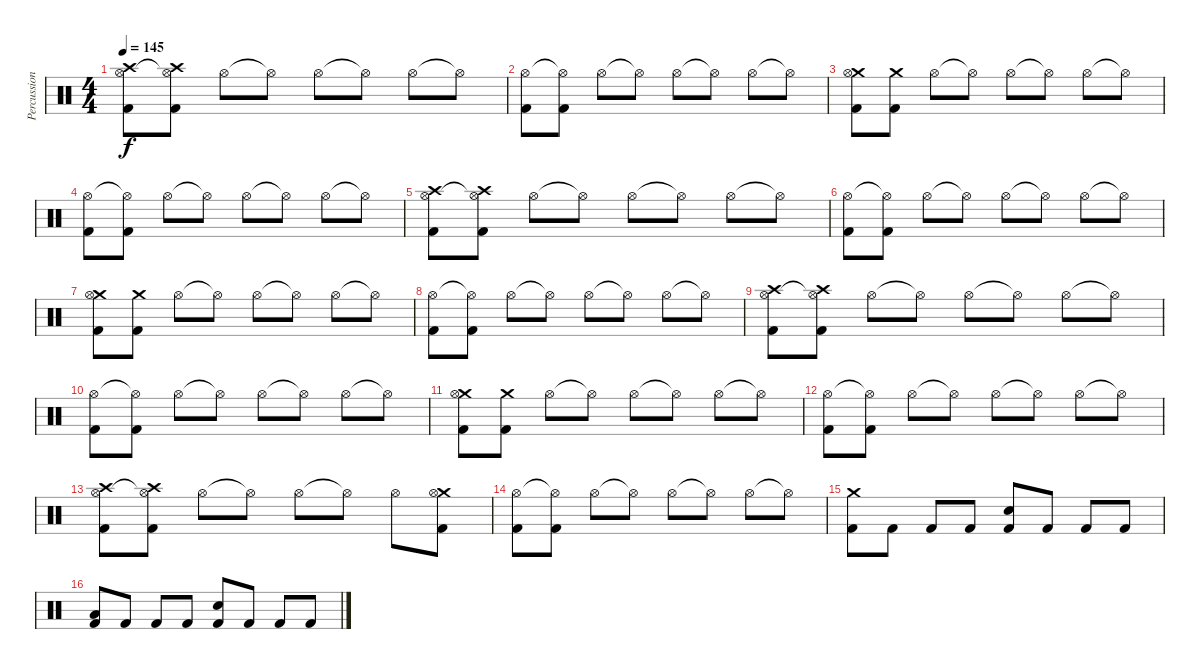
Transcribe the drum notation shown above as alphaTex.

\track ("Percussioni" "Percussion") {instrument percussion}
\staff {score}
\articulation defaults
\ts (4 4)
\tempo 145
\clef neutral
\ks c
("Crash high (hit)" "Hi-Hat (open)" "Kick (hit) 2").8{dy f} ("Crash high (hit)" "Hi-Hat (open)"{t} "Kick (hit) 2").8 "Hi-Hat (open)".8 "Hi-Hat (open)"{t}.8 "Hi-Hat (open)".8 "Hi-Hat (open)"{t}.8 "Hi-Hat (open)".8 "Hi-Hat (open)"{t}.8 |
("Hi-Hat (open)" "Kick (hit) 2").8 ("Hi-Hat (open)"{t} "Kick (hit) 2").8 "Hi-Hat (open)".8 "Hi-Hat (open)"{t}.8 "Hi-Hat (open)".8 "Hi-Hat (open)"{t}.8 "Hi-Hat (open)".8 "Hi-Hat (open)"{t}.8 |
("Crash medium (hit)" "Hi-Hat (open)" "Kick (hit) 2").8 ("Crash medium (hit)" "Kick (hit) 2").8 "Hi-Hat (open)".8 "Hi-Hat (open)"{t}.8 "Hi-Hat (open)".8 "Hi-Hat (open)"{t}.8 "Hi-Hat (open)".8 "Hi-Hat (open)"{t}.8 |
("Hi-Hat (open)" "Kick (hit) 2").8 ("Hi-Hat (open)"{t} "Kick (hit) 2").8 "Hi-Hat (open)".8 "Hi-Hat (open)"{t}.8 "Hi-Hat (open)".8 "Hi-Hat (open)"{t}.8 "Hi-Hat (open)".8 "Hi-Hat (open)"{t}.8 |
("Crash high (hit)" "Hi-Hat (open)" "Kick (hit) 2").8 ("Crash high (hit)" "Hi-Hat (open)"{t} "Kick (hit) 2").8 "Hi-Hat (open)".8 "Hi-Hat (open)"{t}.8 "Hi-Hat (open)".8 "Hi-Hat (open)"{t}.8 "Hi-Hat (open)".8 "Hi-Hat (open)"{t}.8 |
("Hi-Hat (open)" "Kick (hit) 2").8 ("Hi-Hat (open)"{t} "Kick (hit) 2").8 "Hi-Hat (open)".8 "Hi-Hat (open)"{t}.8 "Hi-Hat (open)".8 "Hi-Hat (open)"{t}.8 "Hi-Hat (open)".8 "Hi-Hat (open)"{t}.8 |
("Crash medium (hit)" "Hi-Hat (open)" "Kick (hit) 2").8 ("Crash medium (hit)" "Kick (hit) 2").8 "Hi-Hat (open)".8 "Hi-Hat (open)"{t}.8 "Hi-Hat (open)".8 "Hi-Hat (open)"{t}.8 "Hi-Hat (open)".8 "Hi-Hat (open)"{t}.8 |
("Hi-Hat (open)" "Kick (hit) 2").8 ("Hi-Hat (open)"{t} "Kick (hit) 2").8 "Hi-Hat (open)".8 "Hi-Hat (open)"{t}.8 "Hi-Hat (open)".8 "Hi-Hat (open)"{t}.8 "Hi-Hat (open)".8 "Hi-Hat (open)"{t}.8 |
("Crash high (hit)" "Hi-Hat (open)" "Kick (hit) 2").8 ("Crash high (hit)" "Hi-Hat (open)"{t} "Kick (hit) 2").8 "Hi-Hat (open)".8 "Hi-Hat (open)"{t}.8 "Hi-Hat (open)".8 "Hi-Hat (open)"{t}.8 "Hi-Hat (open)".8 "Hi-Hat (open)"{t}.8 |
("Hi-Hat (open)" "Kick (hit) 2").8 ("Hi-Hat (open)"{t} "Kick (hit) 2").8 "Hi-Hat (open)".8 "Hi-Hat (open)"{t}.8 "Hi-Hat (open)".8 "Hi-Hat (open)"{t}.8 "Hi-Hat (open)".8 "Hi-Hat (open)"{t}.8 |
("Crash medium (hit)" "Hi-Hat (open)" "Kick (hit) 2").8 ("Crash medium (hit)" "Kick (hit) 2").8 "Hi-Hat (open)".8 "Hi-Hat (open)"{t}.8 "Hi-Hat (open)".8 "Hi-Hat (open)"{t}.8 "Hi-Hat (open)".8 "Hi-Hat (open)"{t}.8 |
("Hi-Hat (open)" "Kick (hit) 2").8 ("Hi-Hat (open)"{t} "Kick (hit) 2").8 "Hi-Hat (open)".8 "Hi-Hat (open)"{t}.8 "Hi-Hat (open)".8 "Hi-Hat (open)"{t}.8 "Hi-Hat (open)".8 "Hi-Hat (open)"{t}.8 |
("Crash high (hit)" "Hi-Hat (open)" "Kick (hit) 2").8 ("Crash high (hit)" "Hi-Hat (open)"{t} "Kick (hit) 2").8 "Hi-Hat (open)".8 "Hi-Hat (open)"{t}.8 "Hi-Hat (open)".8 "Hi-Hat (open)"{t}.8 "Hi-Hat (open)".8 ("Crash medium (hit)" "Hi-Hat (open)" "Kick (hit) 2").8 |
("Hi-Hat (open)" "Kick (hit) 2").8 ("Hi-Hat (open)"{t} "Kick (hit) 2").8 "Hi-Hat (open)".8 "Hi-Hat (open)"{t}.8 "Hi-Hat (open)".8 "Hi-Hat (open)"{t}.8 "Hi-Hat (open)".8 "Hi-Hat (open)"{t}.8 |
("Crash medium (hit)" "Kick (hit) 2").8 "Kick (hit) 2".8 "Kick (hit) 2".8 "Kick (hit) 2".8 ("Snare (hit) 2" "Kick (hit) 2").8 "Kick (hit) 2".8 "Kick (hit) 2".8 "Kick (hit) 2".8 |
("Low Floor Tom (hit)" "Kick (hit) 2").8 "Kick (hit) 2".8 "Kick (hit) 2".8 "Kick (hit) 2".8 ("Snare (hit) 2" "Kick (hit) 2").8 "Kick (hit) 2".8 "Kick (hit) 2".8 "Kick (hit) 2".8
